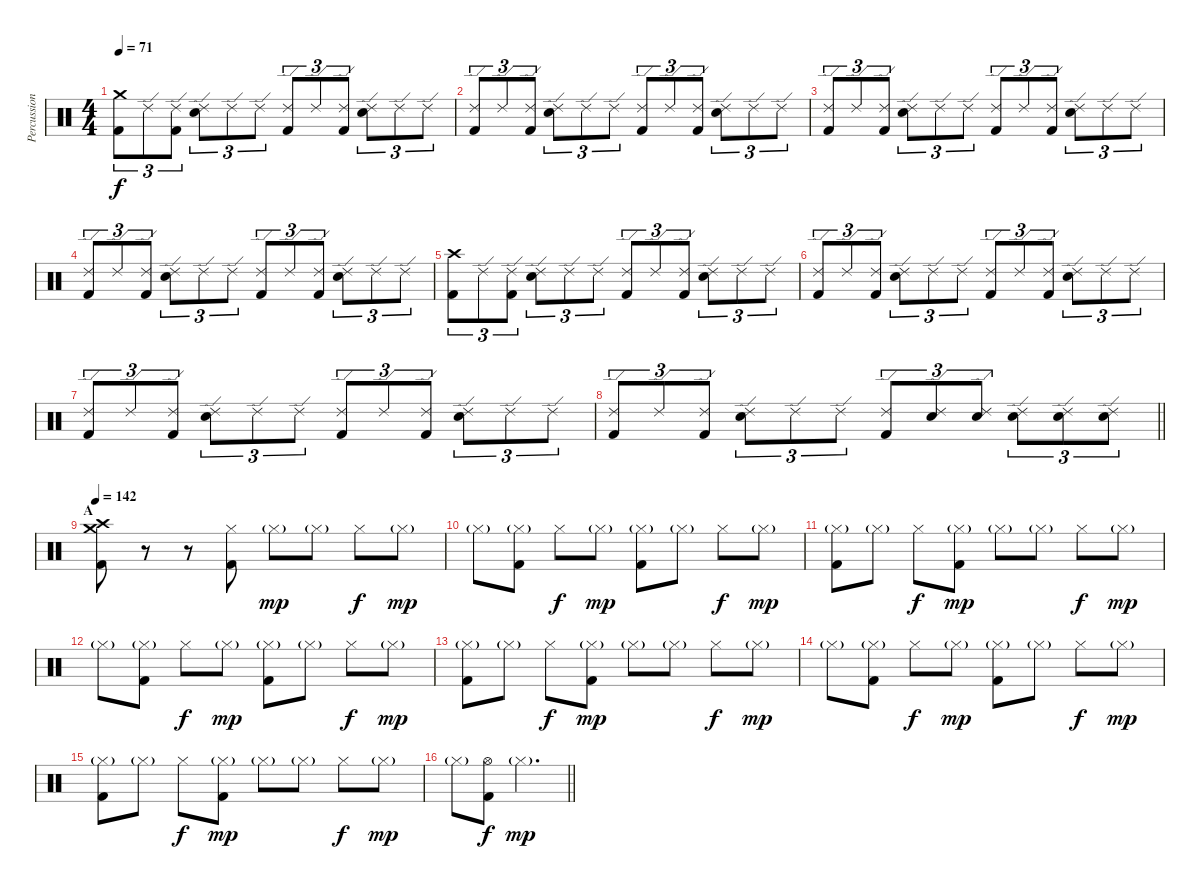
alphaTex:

\track ("Percussion" "Percussion") {instrument percussion}
\staff {score}
\articulation defaults
\ts (4 4)
\tempo 71
\clef neutral
\ks c
("Crash medium (hit)" "Kick (hit) 2").8{tu (3 2) dy f} "Ride (edge) 2".8{tu (3 2)} ("Ride (edge) 2" "Kick (hit) 2").8{tu (3 2)} ("Ride (edge) 2" "Electric Snare (hit)").8{tu (3 2)} "Ride (edge) 2".8{tu (3 2)} "Ride (edge) 2".8{tu (3 2)} ("Ride (edge) 2" "Kick (hit) 2").8{tu (3 2)} "Ride (edge) 2".8{tu (3 2)} ("Ride (edge) 2" "Kick (hit) 2").8{tu (3 2)} ("Ride (edge) 2" "Electric Snare (hit)").8{tu (3 2)} "Ride (edge) 2".8{tu (3 2)} "Ride (edge) 2".8{tu (3 2)} |
("Ride (edge) 2" "Kick (hit) 2").8{tu (3 2)} "Ride (edge) 2".8{tu (3 2)} ("Ride (edge) 2" "Kick (hit) 2").8{tu (3 2)} ("Ride (edge) 2" "Electric Snare (hit)").8{tu (3 2)} "Ride (edge) 2".8{tu (3 2)} "Ride (edge) 2".8{tu (3 2)} ("Ride (edge) 2" "Kick (hit) 2").8{tu (3 2)} "Ride (edge) 2".8{tu (3 2)} ("Ride (edge) 2" "Kick (hit) 2").8{tu (3 2)} ("Ride (edge) 2" "Electric Snare (hit)").8{tu (3 2)} "Ride (edge) 2".8{tu (3 2)} "Ride (edge) 2".8{tu (3 2)} |
("Ride (edge) 2" "Kick (hit) 2").8{tu (3 2)} "Ride (edge) 2".8{tu (3 2)} ("Ride (edge) 2" "Kick (hit) 2").8{tu (3 2)} ("Ride (edge) 2" "Electric Snare (hit)").8{tu (3 2)} "Ride (edge) 2".8{tu (3 2)} "Ride (edge) 2".8{tu (3 2)} ("Ride (edge) 2" "Kick (hit) 2").8{tu (3 2)} "Ride (edge) 2".8{tu (3 2)} ("Ride (edge) 2" "Kick (hit) 2").8{tu (3 2)} ("Ride (edge) 2" "Electric Snare (hit)").8{tu (3 2)} "Ride (edge) 2".8{tu (3 2)} "Ride (edge) 2".8{tu (3 2)} |
("Ride (edge) 2" "Kick (hit) 2").8{tu (3 2)} "Ride (edge) 2".8{tu (3 2)} ("Ride (edge) 2" "Kick (hit) 2").8{tu (3 2)} ("Ride (edge) 2" "Electric Snare (hit)").8{tu (3 2)} "Ride (edge) 2".8{tu (3 2)} "Ride (edge) 2".8{tu (3 2)} ("Ride (edge) 2" "Kick (hit) 2").8{tu (3 2)} "Ride (edge) 2".8{tu (3 2)} ("Ride (edge) 2" "Kick (hit) 2").8{tu (3 2)} ("Ride (edge) 2" "Electric Snare (hit)").8{tu (3 2)} "Ride (edge) 2".8{tu (3 2)} "Ride (edge) 2".8{tu (3 2)} |
("Crash high (hit)" "Kick (hit) 2").8{tu (3 2)} "Ride (edge) 2".8{tu (3 2)} ("Ride (edge) 2" "Kick (hit) 2").8{tu (3 2)} ("Ride (edge) 2" "Electric Snare (hit)").8{tu (3 2)} "Ride (edge) 2".8{tu (3 2)} "Ride (edge) 2".8{tu (3 2)} ("Ride (edge) 2" "Kick (hit) 2").8{tu (3 2)} "Ride (edge) 2".8{tu (3 2)} ("Ride (edge) 2" "Kick (hit) 2").8{tu (3 2)} ("Ride (edge) 2" "Electric Snare (hit)").8{tu (3 2)} "Ride (edge) 2".8{tu (3 2)} "Ride (edge) 2".8{tu (3 2)} |
("Ride (edge) 2" "Kick (hit) 2").8{tu (3 2)} "Ride (edge) 2".8{tu (3 2)} ("Ride (edge) 2" "Kick (hit) 2").8{tu (3 2)} ("Ride (edge) 2" "Electric Snare (hit)").8{tu (3 2)} "Ride (edge) 2".8{tu (3 2)} "Ride (edge) 2".8{tu (3 2)} ("Ride (edge) 2" "Kick (hit) 2").8{tu (3 2)} "Ride (edge) 2".8{tu (3 2)} ("Ride (edge) 2" "Kick (hit) 2").8{tu (3 2)} ("Ride (edge) 2" "Electric Snare (hit)").8{tu (3 2)} "Ride (edge) 2".8{tu (3 2)} "Ride (edge) 2".8{tu (3 2)} |
("Ride (edge) 2" "Kick (hit) 2").8{tu (3 2)} "Ride (edge) 2".8{tu (3 2)} ("Ride (edge) 2" "Kick (hit) 2").8{tu (3 2)} ("Ride (edge) 2" "Electric Snare (hit)").8{tu (3 2)} "Ride (edge) 2".8{tu (3 2)} "Ride (edge) 2".8{tu (3 2)} ("Ride (edge) 2" "Kick (hit) 2").8{tu (3 2)} "Ride (edge) 2".8{tu (3 2)} ("Ride (edge) 2" "Kick (hit) 2").8{tu (3 2)} ("Ride (edge) 2" "Electric Snare (hit)").8{tu (3 2)} "Ride (edge) 2".8{tu (3 2)} "Ride (edge) 2".8{tu (3 2)} |
\barLineRight lightlight
("Ride (edge) 2" "Kick (hit) 2").8{tu (3 2)} "Ride (edge) 2".8{tu (3 2)} ("Ride (edge) 2" "Kick (hit) 2").8{tu (3 2)} ("Ride (edge) 2" "Electric Snare (hit)").8{tu (3 2)} "Ride (edge) 2".8{tu (3 2)} "Ride (edge) 2".8{tu (3 2)} ("Ride (edge) 2" "Kick (hit) 2").8{tu (3 2)} ("Ride (edge) 2" "Electric Snare (hit)").8{tu (3 2)} ("Ride (edge) 2" "Electric Snare (hit)").8{tu (3 2)} ("Ride (edge) 2" "Electric Snare (hit)").8{tu (3 2)} ("Ride (edge) 2" "Electric Snare (hit)").8{tu (3 2)} ("Ride (edge) 2" "Electric Snare (hit)").8{tu (3 2)} |
\section ("" "A")
\tempo 142
("Crash medium (hit)" "Crash high (hit)" "Kick (hit) 2").8 r.8 r.8 ("Hi-Hat (closed)" "Kick (hit) 2").8 "Hi-Hat (closed)"{g}.8{dy mp} "Hi-Hat (closed)"{g}.8 "Hi-Hat (closed)".8{dy f} "Hi-Hat (closed)"{g}.8{dy mp} |
"Hi-Hat (closed)"{g}.8 ("Hi-Hat (closed)"{g} "Kick (hit) 2").8 "Hi-Hat (closed)".8{dy f} "Hi-Hat (closed)"{g}.8{dy mp} ("Hi-Hat (closed)"{g} "Kick (hit) 2").8 "Hi-Hat (closed)"{g}.8 "Hi-Hat (closed)".8{dy f} "Hi-Hat (closed)"{g}.8{dy mp} |
("Hi-Hat (closed)"{g} "Kick (hit) 2").8 "Hi-Hat (closed)"{g}.8 "Hi-Hat (closed)".8{dy f} ("Hi-Hat (closed)"{g} "Kick (hit) 2").8{dy mp} "Hi-Hat (closed)"{g}.8 "Hi-Hat (closed)"{g}.8 "Hi-Hat (closed)".8{dy f} "Hi-Hat (closed)"{g}.8{dy mp} |
"Hi-Hat (closed)"{g}.8 ("Hi-Hat (closed)"{g} "Kick (hit) 2").8 "Hi-Hat (closed)".8{dy f} "Hi-Hat (closed)"{g}.8{dy mp} ("Hi-Hat (closed)"{g} "Kick (hit) 2").8 "Hi-Hat (closed)"{g}.8 "Hi-Hat (closed)".8{dy f} "Hi-Hat (closed)"{g}.8{dy mp} |
("Hi-Hat (closed)"{g} "Kick (hit) 2").8 "Hi-Hat (closed)"{g}.8 "Hi-Hat (closed)".8{dy f} ("Hi-Hat (closed)"{g} "Kick (hit) 2").8{dy mp} "Hi-Hat (closed)"{g}.8 "Hi-Hat (closed)"{g}.8 "Hi-Hat (closed)".8{dy f} "Hi-Hat (closed)"{g}.8{dy mp} |
"Hi-Hat (closed)"{g}.8 ("Hi-Hat (closed)"{g} "Kick (hit) 2").8 "Hi-Hat (closed)".8{dy f} "Hi-Hat (closed)"{g}.8{dy mp} ("Hi-Hat (closed)"{g} "Kick (hit) 2").8 "Hi-Hat (closed)"{g}.8 "Hi-Hat (closed)".8{dy f} "Hi-Hat (closed)"{g}.8{dy mp} |
("Hi-Hat (closed)"{g} "Kick (hit) 2").8 "Hi-Hat (closed)"{g}.8 "Hi-Hat (closed)".8{dy f} ("Hi-Hat (closed)"{g} "Kick (hit) 2").8{dy mp} "Hi-Hat (closed)"{g}.8 "Hi-Hat (closed)"{g}.8 "Hi-Hat (closed)".8{dy f} "Hi-Hat (closed)"{g}.8{dy mp} |
\barLineRight lightlight "Hi-Hat (closed)"{g}.8
("Hi-Hat (open)" "Kick (hit) 2").8{dy f} "Hi-Hat (closed)"{g}.2{d dy mp}
